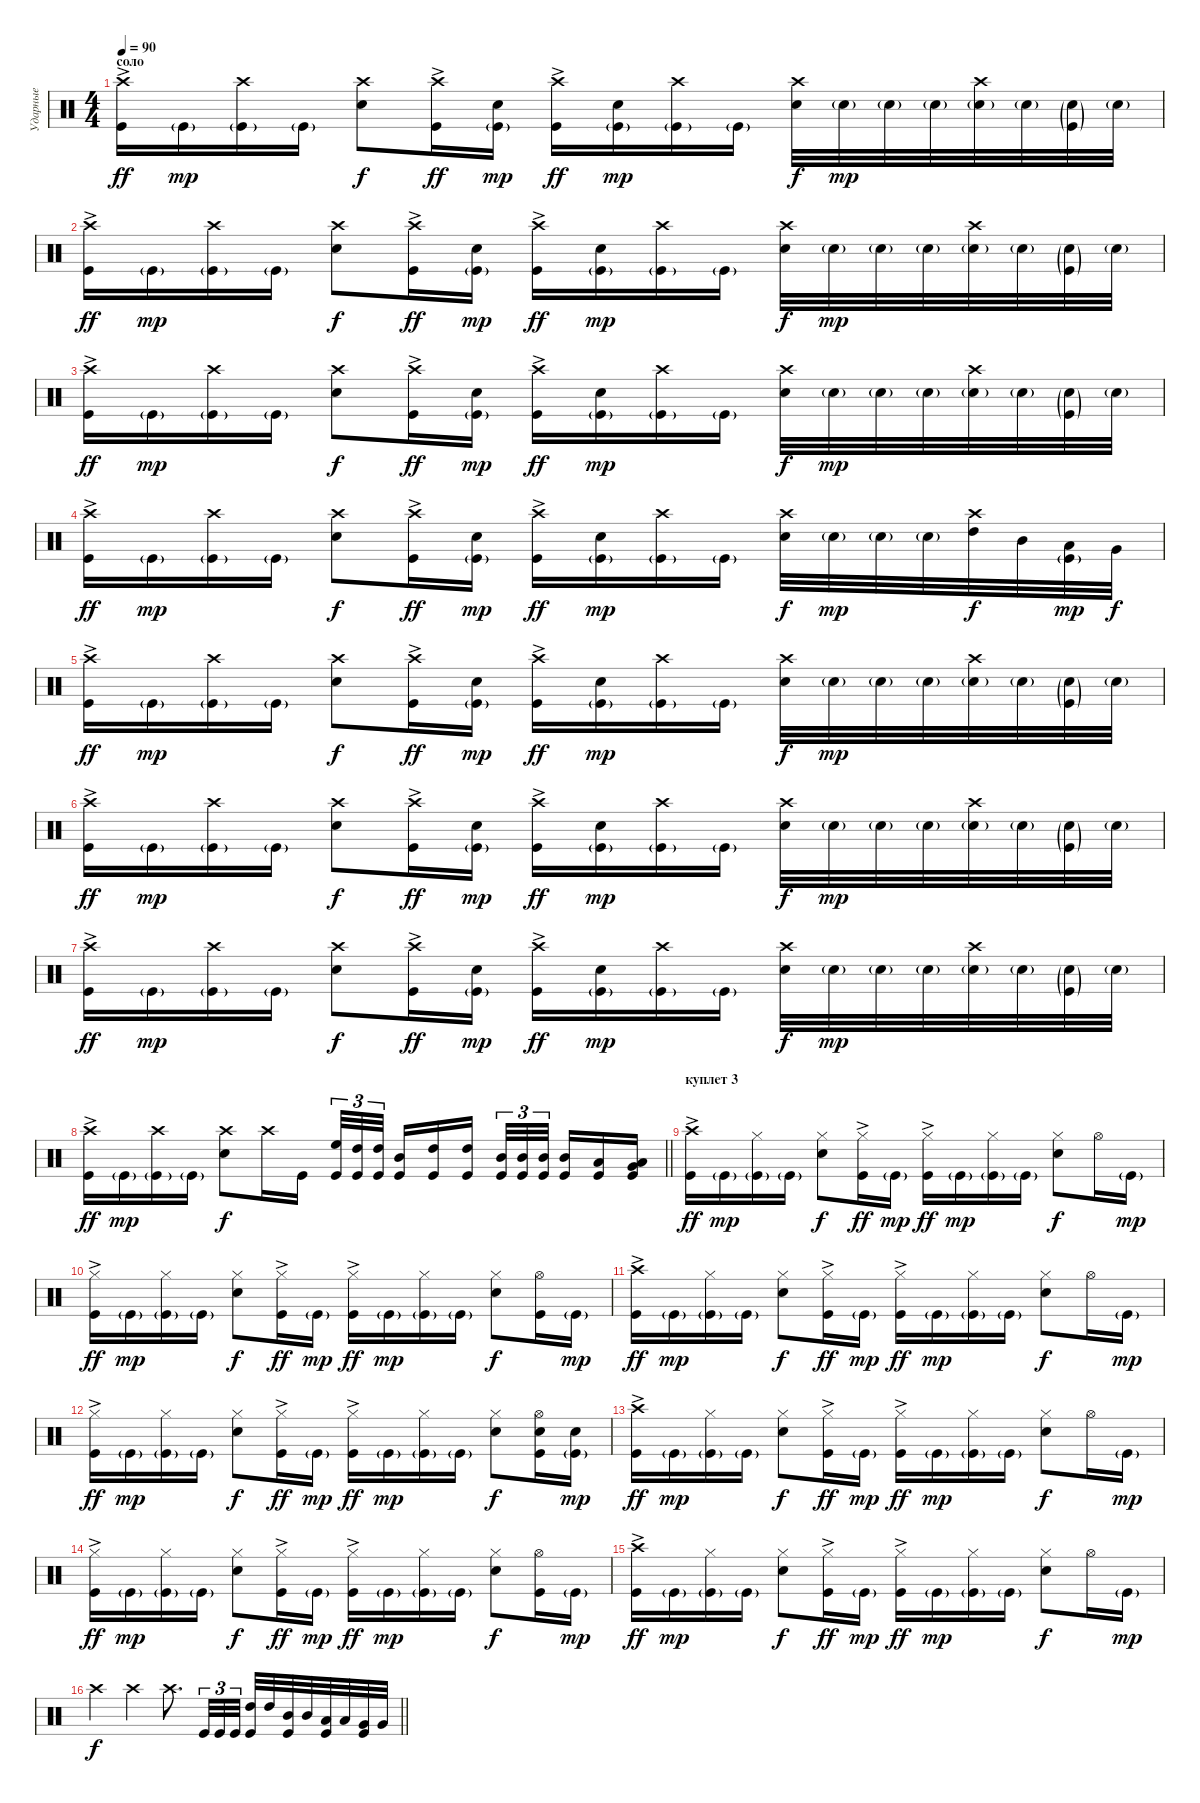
\track ("Ударные" "Ударные") {instrument percussion}
\staff {score}
\articulation defaults
\ts (4 4)
\section ("" "соло")
\tempo 90
\clef neutral
\ks c
("Kick (hit)"{ac} "Crash high (hit)").16{dy ff volume 16} "Kick (hit)"{g}.16{dy mp} ("Kick (hit)"{g} "Crash high (hit)").16 "Kick (hit)"{g}.16 ("Electric Snare (hit)" "Crash high (hit)").8{dy f} ("Kick (hit)"{ac} "Crash high (hit)").16{dy ff} ("Kick (hit)"{g} "Electric Snare (hit)").16{dy mp} ("Kick (hit)"{ac} "Crash high (hit)").16{dy ff} ("Kick (hit)"{g} "Electric Snare (hit)").16{dy mp} ("Kick (hit)"{g} "Crash high (hit)").16 "Kick (hit)"{g}.16 ("Crash high (hit)" "Electric Snare (hit)").32{dy f} "Snare (hit) 2"{g}.32{dy mp} "Snare (hit) 2"{g}.32 "Snare (hit) 2"{g}.32 ("Snare (hit) 2"{g} "Crash high (hit)").32 "Snare (hit) 2"{g}.32 ("Snare (hit) 2"{g} "Kick (hit)"{g}).32 "Snare (hit) 2"{g}.32 |
("Kick (hit)"{ac} "Crash high (hit)").16{dy ff} "Kick (hit)"{g}.16{dy mp} ("Kick (hit)"{g} "Crash high (hit)").16 "Kick (hit)"{g}.16 ("Electric Snare (hit)" "Crash high (hit)").8{dy f} ("Kick (hit)"{ac} "Crash high (hit)").16{dy ff} ("Kick (hit)"{g} "Electric Snare (hit)").16{dy mp} ("Kick (hit)"{ac} "Crash high (hit)").16{dy ff} ("Kick (hit)"{g} "Electric Snare (hit)").16{dy mp} ("Kick (hit)"{g} "Crash high (hit)").16 "Kick (hit)"{g}.16 ("Crash high (hit)" "Electric Snare (hit)").32{dy f} "Snare (hit) 2"{g}.32{dy mp} "Snare (hit) 2"{g}.32 "Snare (hit) 2"{g}.32 ("Snare (hit) 2"{g} "Crash high (hit)").32 "Snare (hit) 2"{g}.32 ("Snare (hit) 2"{g} "Kick (hit)"{g}).32 "Snare (hit) 2"{g}.32 |
("Kick (hit)"{ac} "Crash high (hit)").16{dy ff} "Kick (hit)"{g}.16{dy mp} ("Kick (hit)"{g} "Crash high (hit)").16 "Kick (hit)"{g}.16 ("Electric Snare (hit)" "Crash high (hit)").8{dy f} ("Kick (hit)"{ac} "Crash high (hit)").16{dy ff} ("Kick (hit)"{g} "Electric Snare (hit)").16{dy mp} ("Kick (hit)"{ac} "Crash high (hit)").16{dy ff} ("Kick (hit)"{g} "Electric Snare (hit)").16{dy mp} ("Kick (hit)"{g} "Crash high (hit)").16 "Kick (hit)"{g}.16 ("Crash high (hit)" "Electric Snare (hit)").32{dy f} "Snare (hit) 2"{g}.32{dy mp} "Snare (hit) 2"{g}.32 "Snare (hit) 2"{g}.32 ("Snare (hit) 2"{g} "Crash high (hit)").32 "Snare (hit) 2"{g}.32 ("Snare (hit) 2"{g} "Kick (hit)"{g}).32 "Snare (hit) 2"{g}.32 |
("Kick (hit)"{ac} "Crash high (hit)").16{dy ff} "Kick (hit)"{g}.16{dy mp} ("Kick (hit)"{g} "Crash high (hit)").16 "Kick (hit)"{g}.16 ("Electric Snare (hit)" "Crash high (hit)").8{dy f} ("Kick (hit)"{ac} "Crash high (hit)").16{dy ff} ("Kick (hit)"{g} "Electric Snare (hit)").16{dy mp} ("Kick (hit)"{ac} "Crash high (hit)").16{dy ff} ("Kick (hit)"{g} "Electric Snare (hit)").16{dy mp} ("Kick (hit)"{g} "Crash high (hit)").16 "Kick (hit)"{g}.16 ("Crash high (hit)" "Electric Snare (hit)").32{dy f} "Snare (hit) 2"{g}.32{dy mp} "Snare (hit) 2"{g}.32 "Snare (hit) 2"{g}.32 ("High Tom (hit)" "Crash high (hit)").32{dy f} "Mid Tom (hit)".32 ("Low Tom (hit)" "Kick (hit)"{g}).32{dy mp} "Very Low Tom (hit)".32{dy f} |
("Kick (hit)"{ac} "Crash high (hit)").16{dy ff volume 16} "Kick (hit)"{g}.16{dy mp} ("Kick (hit)"{g} "Crash high (hit)").16 "Kick (hit)"{g}.16 ("Electric Snare (hit)" "Crash high (hit)").8{dy f} ("Kick (hit)"{ac} "Crash high (hit)").16{dy ff} ("Kick (hit)"{g} "Electric Snare (hit)").16{dy mp} ("Kick (hit)"{ac} "Crash high (hit)").16{dy ff} ("Kick (hit)"{g} "Electric Snare (hit)").16{dy mp} ("Kick (hit)"{g} "Crash high (hit)").16 "Kick (hit)"{g}.16 ("Crash high (hit)" "Electric Snare (hit)").32{dy f} "Snare (hit) 2"{g}.32{dy mp} "Snare (hit) 2"{g}.32 "Snare (hit) 2"{g}.32 ("Snare (hit) 2"{g} "Crash high (hit)").32 "Snare (hit) 2"{g}.32 ("Snare (hit) 2"{g} "Kick (hit)"{g}).32 "Snare (hit) 2"{g}.32 |
("Kick (hit)"{ac} "Crash high (hit)").16{dy ff} "Kick (hit)"{g}.16{dy mp} ("Kick (hit)"{g} "Crash high (hit)").16 "Kick (hit)"{g}.16 ("Electric Snare (hit)" "Crash high (hit)").8{dy f} ("Kick (hit)"{ac} "Crash high (hit)").16{dy ff} ("Kick (hit)"{g} "Electric Snare (hit)").16{dy mp} ("Kick (hit)"{ac} "Crash high (hit)").16{dy ff} ("Kick (hit)"{g} "Electric Snare (hit)").16{dy mp} ("Kick (hit)"{g} "Crash high (hit)").16 "Kick (hit)"{g}.16 ("Crash high (hit)" "Electric Snare (hit)").32{dy f} "Snare (hit) 2"{g}.32{dy mp} "Snare (hit) 2"{g}.32 "Snare (hit) 2"{g}.32 ("Snare (hit) 2"{g} "Crash high (hit)").32 "Snare (hit) 2"{g}.32 ("Snare (hit) 2"{g} "Kick (hit)"{g}).32 "Snare (hit) 2"{g}.32 |
("Kick (hit)"{ac} "Crash high (hit)").16{dy ff} "Kick (hit)"{g}.16{dy mp} ("Kick (hit)"{g} "Crash high (hit)").16 "Kick (hit)"{g}.16 ("Electric Snare (hit)" "Crash high (hit)").8{dy f} ("Kick (hit)"{ac} "Crash high (hit)").16{dy ff} ("Kick (hit)"{g} "Electric Snare (hit)").16{dy mp} ("Kick (hit)"{ac} "Crash high (hit)").16{dy ff} ("Kick (hit)"{g} "Electric Snare (hit)").16{dy mp} ("Kick (hit)"{g} "Crash high (hit)").16 "Kick (hit)"{g}.16 ("Crash high (hit)" "Electric Snare (hit)").32{dy f} "Snare (hit) 2"{g}.32{dy mp} "Snare (hit) 2"{g}.32 "Snare (hit) 2"{g}.32 ("Snare (hit) 2"{g} "Crash high (hit)").32 "Snare (hit) 2"{g}.32 ("Snare (hit) 2"{g} "Kick (hit)"{g}).32 "Snare (hit) 2"{g}.32 |
\barLineRight lightlight
("Kick (hit)"{ac} "Crash high (hit)").16{dy ff} "Kick (hit)"{g}.16{dy mp} ("Kick (hit)"{g} "Crash high (hit)").16 "Kick (hit)"{g}.16 ("Electric Snare (hit)" "Crash high (hit)").8{dy f} "Crash high (hit)".16 "Kick (hit)".16 ("Kick (hit)" "High Floor Tom (hit)").32{tu (3 2)} ("Kick (hit)" "High Tom (hit)").32{tu (3 2)} ("Kick (hit)" "High Tom (hit)").32{tu (3 2) beam splitsecondary} ("Kick (hit)" "Mid Tom (hit)").16 ("Kick (hit)" "High Tom (hit)").16 ("Kick (hit)" "High Tom (hit)").16 ("Kick (hit)" "Mid Tom (hit)").32{tu (3 2)} ("Kick (hit)" "Mid Tom (hit)").32{tu (3 2)} ("Kick (hit)" "Mid Tom (hit)").32{tu (3 2) beam splitsecondary} ("Kick (hit)" "Mid Tom (hit)").16 ("Kick (hit)" "Low Tom (hit)").16 ("Kick (hit)" "Low Tom (hit)" "Very Low Tom (hit)").16 |
\section ("" "куплет 3")
("Kick (hit)"{ac} "Crash high (hit)").16{dy ff volume 16} "Kick (hit)"{g}.16{dy mp} ("Kick (hit)"{g} "Hi-Hat (closed)").16 "Kick (hit)"{g}.16 ("Electric Snare (hit)" "Hi-Hat (closed)").8{dy f} ("Kick (hit)"{ac} "Hi-Hat (closed)").16{dy ff} "Kick (hit)"{g}.16{dy mp} ("Kick (hit)"{ac} "Hi-Hat (closed)").16{dy ff} "Kick (hit)"{g}.16{dy mp} ("Kick (hit)"{g} "Hi-Hat (closed)").16 "Kick (hit)"{g}.16 ("Electric Snare (hit)" "Hi-Hat (closed)").8{dy f} "Hi-Hat (open)".16 "Kick (hit)"{g}.16{dy mp} |
("Kick (hit)"{ac} "Hi-Hat (closed)").16{dy ff} "Kick (hit)"{g}.16{dy mp} ("Kick (hit)"{g} "Hi-Hat (closed)").16 "Kick (hit)"{g}.16 ("Electric Snare (hit)" "Hi-Hat (closed)").8{dy f} ("Kick (hit)"{ac} "Hi-Hat (closed)").16{dy ff} "Kick (hit)"{g}.16{dy mp} ("Kick (hit)"{ac} "Hi-Hat (closed)").16{dy ff} "Kick (hit)"{g}.16{dy mp} ("Kick (hit)"{g} "Hi-Hat (closed)").16 "Kick (hit)"{g}.16 ("Electric Snare (hit)" "Hi-Hat (closed)").8{dy f} ("Kick (hit)" "Hi-Hat (open)").16 "Kick (hit)"{g}.16{dy mp} |
("Kick (hit)"{ac} "Crash high (hit)").16{dy ff} "Kick (hit)"{g}.16{dy mp} ("Kick (hit)"{g} "Hi-Hat (closed)").16 "Kick (hit)"{g}.16 ("Electric Snare (hit)" "Hi-Hat (closed)").8{dy f} ("Kick (hit)"{ac} "Hi-Hat (closed)").16{dy ff} "Kick (hit)"{g}.16{dy mp} ("Kick (hit)"{ac} "Hi-Hat (closed)").16{dy ff} "Kick (hit)"{g}.16{dy mp} ("Kick (hit)"{g} "Hi-Hat (closed)").16 "Kick (hit)"{g}.16 ("Electric Snare (hit)" "Hi-Hat (closed)").8{dy f} "Hi-Hat (open)".16 "Kick (hit)"{g}.16{dy mp} |
("Kick (hit)"{ac} "Hi-Hat (closed)").16{dy ff} "Kick (hit)"{g}.16{dy mp} ("Kick (hit)"{g} "Hi-Hat (closed)").16 "Kick (hit)"{g}.16 ("Electric Snare (hit)" "Hi-Hat (closed)").8{dy f} ("Kick (hit)"{ac} "Hi-Hat (closed)").16{dy ff} "Kick (hit)"{g}.16{dy mp} ("Kick (hit)"{ac} "Hi-Hat (closed)").16{dy ff} "Kick (hit)"{g}.16{dy mp} ("Kick (hit)"{g} "Hi-Hat (closed)").16 "Kick (hit)"{g}.16 ("Electric Snare (hit)" "Hi-Hat (closed)").8{dy f} ("Kick (hit)" "Hi-Hat (open)" "Electric Snare (hit)").16 ("Electric Snare (hit)" "Kick (hit)"{g}).16{dy mp} |
("Kick (hit)"{ac} "Crash high (hit)").16{dy ff} "Kick (hit)"{g}.16{dy mp} ("Kick (hit)"{g} "Hi-Hat (closed)").16 "Kick (hit)"{g}.16 ("Electric Snare (hit)" "Hi-Hat (closed)").8{dy f} ("Kick (hit)"{ac} "Hi-Hat (closed)").16{dy ff} "Kick (hit)"{g}.16{dy mp} ("Kick (hit)"{ac} "Hi-Hat (closed)").16{dy ff} "Kick (hit)"{g}.16{dy mp} ("Kick (hit)"{g} "Hi-Hat (closed)").16 "Kick (hit)"{g}.16 ("Electric Snare (hit)" "Hi-Hat (closed)").8{dy f} "Hi-Hat (open)".16 "Kick (hit)"{g}.16{dy mp} |
("Kick (hit)"{ac} "Hi-Hat (closed)").16{dy ff} "Kick (hit)"{g}.16{dy mp} ("Kick (hit)"{g} "Hi-Hat (closed)").16 "Kick (hit)"{g}.16 ("Electric Snare (hit)" "Hi-Hat (closed)").8{dy f} ("Kick (hit)"{ac} "Hi-Hat (closed)").16{dy ff} "Kick (hit)"{g}.16{dy mp} ("Kick (hit)"{ac} "Hi-Hat (closed)").16{dy ff} "Kick (hit)"{g}.16{dy mp} ("Kick (hit)"{g} "Hi-Hat (closed)").16 "Kick (hit)"{g}.16 ("Electric Snare (hit)" "Hi-Hat (closed)").8{dy f} ("Kick (hit)" "Hi-Hat (open)").16 "Kick (hit)"{g}.16{dy mp} |
("Kick (hit)"{ac} "Crash high (hit)").16{dy ff} "Kick (hit)"{g}.16{dy mp} ("Kick (hit)"{g} "Hi-Hat (closed)").16 "Kick (hit)"{g}.16 ("Electric Snare (hit)" "Hi-Hat (closed)").8{dy f} ("Kick (hit)"{ac} "Hi-Hat (closed)").16{dy ff} "Kick (hit)"{g}.16{dy mp} ("Kick (hit)"{ac} "Hi-Hat (closed)").16{dy ff} "Kick (hit)"{g}.16{dy mp} ("Kick (hit)"{g} "Hi-Hat (closed)").16 "Kick (hit)"{g}.16 ("Electric Snare (hit)" "Hi-Hat (closed)").8{dy f} "Hi-Hat (open)".16 "Kick (hit)"{g}.16{dy mp} |
\barLineRight lightlight "Crash high (hit)".4{dy f} "Crash high (hit)".4 "Crash high (hit)".8{d} "Kick (hit)".32{tu (3 2)} "Kick (hit)".32{tu (3 2)} "Kick (hit)".32{tu (3 2)}
("High Tom (hit)" "Kick (hit)").32 "High Tom (hit)".32 ("Mid Tom (hit)" "Kick (hit)").32 "Mid Tom (hit)".32 ("Low Tom (hit)" "Kick (hit)").32 "Low Tom (hit)".32 ("Very Low Tom (hit)" "Kick (hit)").32 "Very Low Tom (hit)".32
